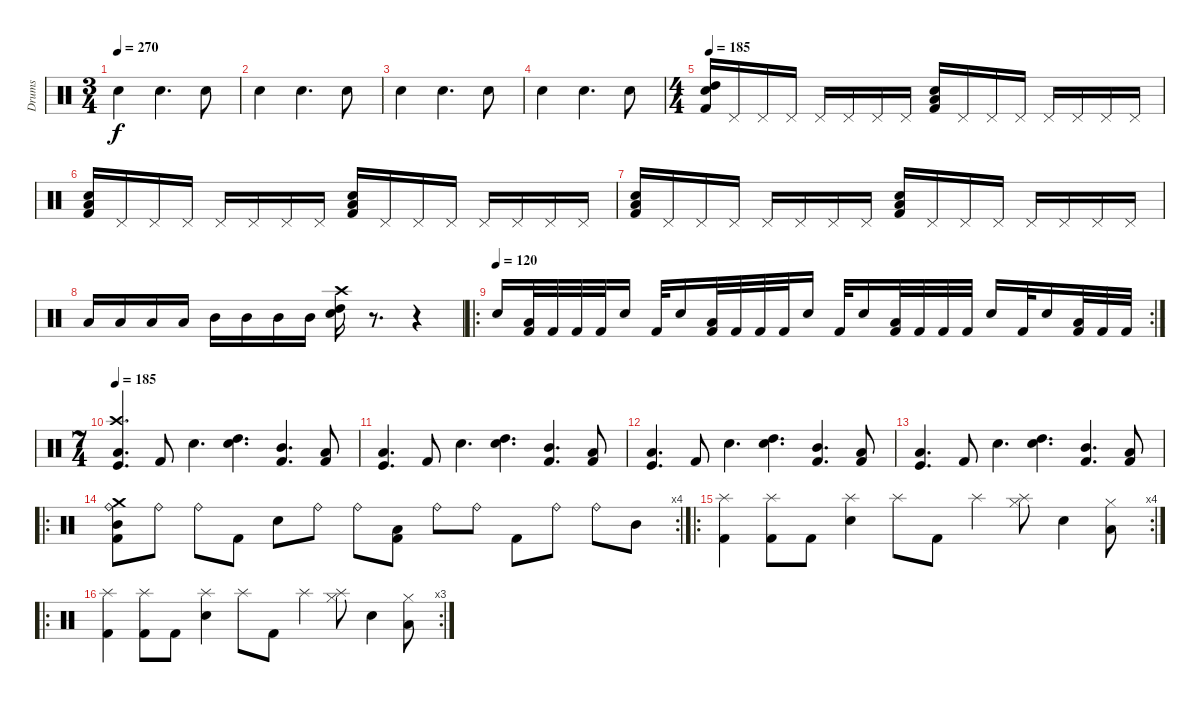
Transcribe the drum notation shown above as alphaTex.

\track ("Drums" "Drums") {instrument percussion}
\staff {score}
\articulation defaults
\ts (3 4)
\tempo 270
\clef neutral
\ks c "Electric Snare (hit)".4{dy f} "Electric Snare (hit)".4{d} "Electric Snare (hit)".8
|
"Electric Snare (hit)".4 "Electric Snare (hit)".4{d} "Electric Snare (hit)".8 |
"Electric Snare (hit)".4 "Electric Snare (hit)".4{d} "Electric Snare (hit)".8 |
"Electric Snare (hit)".4 "Electric Snare (hit)".4{d} "Electric Snare (hit)".8 |
\ts (4 4)
\tempo 185
("Kick (hit) 2" "High Tom (hit)" "Electric Snare (hit)").16 "Pedal Hi-Hat (hit)".16 "Pedal Hi-Hat (hit)".16 "Pedal Hi-Hat (hit)".16 "Pedal Hi-Hat (hit)".16 "Pedal Hi-Hat (hit)".16 "Pedal Hi-Hat (hit)".16 "Pedal Hi-Hat (hit)".16 ("Low Tom (hit)" "Electric Snare (hit)" "Kick (hit) 2").16 "Pedal Hi-Hat (hit)".16 "Pedal Hi-Hat (hit)".16 "Pedal Hi-Hat (hit)".16 "Pedal Hi-Hat (hit)".16 "Pedal Hi-Hat (hit)".16 "Pedal Hi-Hat (hit)".16 "Pedal Hi-Hat (hit)".16 |
("Low Tom (hit)" "Electric Snare (hit)" "Kick (hit) 2").16 "Pedal Hi-Hat (hit)".16 "Pedal Hi-Hat (hit)".16 "Pedal Hi-Hat (hit)".16 "Pedal Hi-Hat (hit)".16 "Pedal Hi-Hat (hit)".16 "Pedal Hi-Hat (hit)".16 "Pedal Hi-Hat (hit)".16 ("Low Tom (hit)" "Electric Snare (hit)" "Kick (hit) 2").16 "Pedal Hi-Hat (hit)".16 "Pedal Hi-Hat (hit)".16 "Pedal Hi-Hat (hit)".16 "Pedal Hi-Hat (hit)".16 "Pedal Hi-Hat (hit)".16 "Pedal Hi-Hat (hit)".16 "Pedal Hi-Hat (hit)".16 |
("Low Tom (hit)" "Electric Snare (hit)" "Kick (hit) 2").16 "Pedal Hi-Hat (hit)".16 "Pedal Hi-Hat (hit)".16 "Pedal Hi-Hat (hit)".16 "Pedal Hi-Hat (hit)".16 "Pedal Hi-Hat (hit)".16 "Pedal Hi-Hat (hit)".16 "Pedal Hi-Hat (hit)".16 ("Low Tom (hit)" "Electric Snare (hit)" "Kick (hit) 2").16 "Pedal Hi-Hat (hit)".16 "Pedal Hi-Hat (hit)".16 "Pedal Hi-Hat (hit)".16 "Pedal Hi-Hat (hit)".16 "Pedal Hi-Hat (hit)".16 "Pedal Hi-Hat (hit)".16 "Pedal Hi-Hat (hit)".16 |
"Low Tom (hit)".16 "Low Tom (hit)".16 "Low Tom (hit)".16 "Low Tom (hit)".16 "Mid Tom (hit)".16 "Mid Tom (hit)".16 "Mid Tom (hit)".16 "Mid Tom (hit)".16 ("Electric Snare (hit)" "Crash high (hit)" "High Tom (hit)").16 r.8{d} r.4 |
\ro
\rc 2
\tempo (120)
"Electric Snare (hit)".16 ("Low Tom (hit)" "Kick (hit) 2").32 "Kick (hit) 2".32 "Kick (hit) 2".32 "Kick (hit) 2".32 "Electric Snare (hit)".16 "Kick (hit) 2".32 "Electric Snare (hit)".16 ("Low Tom (hit)" "Kick (hit) 2").32 "Kick (hit) 2".32 "Kick (hit) 2".32 "Kick (hit) 2".32 "Electric Snare (hit)".16 "Kick (hit) 2".32 "Electric Snare (hit)".16 ("Kick (hit) 2" "Low Tom (hit)").32 "Kick (hit) 2".32 "Kick (hit) 2".32 "Kick (hit) 2".32 "Electric Snare (hit)".16 "Kick (hit) 2".32 "Electric Snare (hit)".16 ("Kick (hit) 2" "Low Tom (hit)").32 "Kick (hit) 2".32 "Kick (hit) 2".32 |
\ts (7 4)
\tempo 185
("Kick (hit)" "Low Tom (hit)" "Crash high (hit)").4{d} "Kick (hit) 2".8 "Electric Snare (hit)".4{d} ("High Tom (hit)" "Electric Snare (hit)").4{d} ("Mid Tom (hit)" "Kick (hit) 2").4{d} ("Low Tom (hit)" "Kick (hit) 2").8 |
("Kick (hit)" "Low Tom (hit)").4{d} "Kick (hit) 2".8 "Electric Snare (hit)".4{d} ("High Tom (hit)" "Electric Snare (hit)").4{d} ("Mid Tom (hit)" "Kick (hit) 2").4{d} ("Low Tom (hit)" "Kick (hit) 2").8 |
("Kick (hit)" "Low Tom (hit)").4{d} "Kick (hit) 2".8 "Electric Snare (hit)".4{d} ("High Tom (hit)" "Electric Snare (hit)").4{d} ("Mid Tom (hit)" "Kick (hit) 2").4{d} ("Low Tom (hit)" "Kick (hit) 2").8 |
("Kick (hit)" "Low Tom (hit)").4{d} "Kick (hit) 2".8 "Electric Snare (hit)".4{d} ("High Tom (hit)" "Electric Snare (hit)").4{d} ("Mid Tom (hit)" "Kick (hit) 2").4{d} ("Low Tom (hit)" "Kick (hit) 2").8 |
\ro
\rc 4
("Kick (hit) 2" "Ride (bell)" "Mid Tom (hit)" "Crash medium (hit)").8 "Ride (bell)".8 "Ride (bell)".8 "Kick (hit) 2".8 "Electric Snare (hit)".8 "Ride (bell)".8 "Ride (bell)".8 ("Low Tom (hit)" "Kick (hit) 2").8 "Ride (bell)".8 "Ride (bell)".8 "Kick (hit) 2".8 "Ride (bell)".8 "Ride (bell)".8 "Mid Tom (hit)".8 |
\ro
\rc 4
("Kick (hit) 2" "Splash (hit)").4 ("Splash (hit)" "Kick (hit) 2").8 "Kick (hit) 2".8 ("Splash (hit)" "Electric Snare (hit)").4 "Splash (hit)".8 "Kick (hit) 2".8 "Splash (hit)".4 ("Splash (hit)" "Hi-Hat (closed)").8 "Electric Snare (hit)".4 ("Hi-Hat (closed)" "Low Tom (hit)").8 |
\ro
\rc 3
("Kick (hit) 2" "Splash (hit)").4 ("Splash (hit)" "Kick (hit) 2").8 "Kick (hit) 2".8 ("Splash (hit)" "Electric Snare (hit)").4 "Splash (hit)".8 "Kick (hit) 2".8 "Splash (hit)".4 ("Splash (hit)" "Hi-Hat (closed)").8 "Electric Snare (hit)".4 ("Hi-Hat (closed)" "Low Tom (hit)").8
